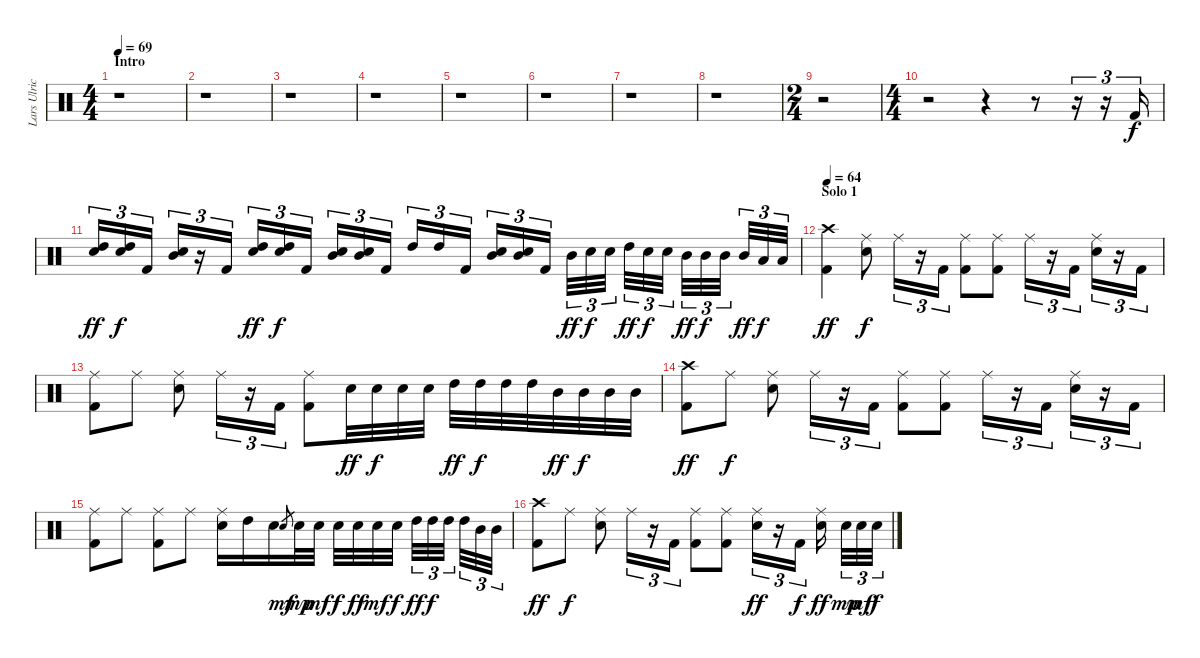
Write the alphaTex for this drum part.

\track ("Lars Ulrich" "Lars Ulric") {instrument percussion}
\staff {score}
\articulation defaults
\ts (4 4)
\section ("" "Intro")
\tempo 69
\clef neutral
\ks c
r.1{dy f} |
r.1 |
r.1 |
r.1 |
r.1 |
r.1 |
r.1 |
r.1 |
\ts (2 4)
r.2 |
\ts (4 4)
r.2 r.4 r.8 r.16{tu (3 2)} r.16{tu (3 2)} "Kick (hit) 2".16{tu (3 2)} |
("High Tom (hit)" "Electric Snare (hit)").16{tu (3 2) dy ff} ("High Tom (hit)" "Electric Snare (hit)").16{tu (3 2) dy f} "Kick (hit) 2".16{tu (3 2)} ("Mid Tom (hit)" "Electric Snare (hit)").16{tu (3 2)} r.16{tu (3 2)} "Kick (hit) 2".16{tu (3 2)} ("High Tom (hit)" "Electric Snare (hit)").16{tu (3 2) dy ff} ("High Tom (hit)" "Electric Snare (hit)").16{tu (3 2) dy f} "Kick (hit) 2".16{tu (3 2)} ("Mid Tom (hit)" "Electric Snare (hit)").16{tu (3 2)} ("Mid Tom (hit)" "Electric Snare (hit)").16{tu (3 2)} "Kick (hit) 2".16{tu (3 2)} "High Tom (hit)".16{tu (3 2)} "High Tom (hit)".16{tu (3 2)} "Kick (hit) 2".16{tu (3 2)} ("Mid Tom (hit)" "Electric Snare (hit)").16{tu (3 2)} ("Mid Tom (hit)" "Electric Snare (hit)").16{tu (3 2)} "Kick (hit) 2".16{tu (3 2)} "Mid Tom (hit)".32{tu (3 2) dy ff} "Electric Snare (hit)".32{tu (3 2) dy f} "Electric Snare (hit)".32{tu (3 2)} "High Tom (hit)".32{tu (3 2) dy ff} "Electric Snare (hit)".32{tu (3 2) dy f} "Electric Snare (hit)".32{tu (3 2)} "Mid Tom (hit)".32{tu (3 2) dy ff} "Mid Tom (hit)".32{tu (3 2) dy f} "Mid Tom (hit)".32{tu (3 2)} "Mid Tom (hit)".32{tu (3 2) dy ff} "Low Tom (hit)".32{tu (3 2) dy f} "Low Tom (hit)".32{tu (3 2)} |
\section ("" "Solo 1")
\tempo 64
("Crash high (hit)" "Kick (hit) 2").4{dy ff} ("Ride (middle)" "Electric Snare (hit)").8{dy f} "Ride (middle)".16{tu (3 2)} r.16{tu (3 2)} "Kick (hit) 2".16{tu (3 2)} ("Ride (middle)" "Kick (hit) 2").8 ("Ride (middle)" "Kick (hit) 2").8 "Ride (middle)".16{tu (3 2)} r.16{tu (3 2)} "Kick (hit) 2".16{tu (3 2)} ("Ride (middle)" "Electric Snare (hit)").16{tu (3 2)} r.16{tu (3 2)} "Kick (hit) 2".16{tu (3 2)} |
("Ride (middle)" "Kick (hit) 2").8 "Ride (middle)".8 ("Ride (middle)" "Electric Snare (hit)").8 "Ride (middle)".16{tu (3 2)} r.16{tu (3 2)} "Kick (hit) 2".16{tu (3 2)} ("Ride (middle)" "Kick (hit) 2").8 "Electric Snare (hit)".32{dy ff} "Electric Snare (hit)".32{dy f} "Electric Snare (hit)".32 "Electric Snare (hit)".32 "High Tom (hit)".32{dy ff} "High Tom (hit)".32{dy f} "High Tom (hit)".32 "High Tom (hit)".32 "Mid Tom (hit)".32{dy ff} "Mid Tom (hit)".32{dy f} "Mid Tom (hit)".32 "Mid Tom (hit)".32 |
("Crash high (hit)" "Kick (hit) 2").8{dy ff} "Ride (middle)".8{dy f} ("Ride (middle)" "Electric Snare (hit)").8 "Ride (middle)".16{tu (3 2)} r.16{tu (3 2)} "Kick (hit) 2".16{tu (3 2)} ("Ride (middle)" "Kick (hit) 2").8 ("Ride (middle)" "Kick (hit) 2").8 "Ride (middle)".16{tu (3 2)} r.16{tu (3 2)} "Kick (hit) 2".16{tu (3 2)} ("Ride (middle)" "Electric Snare (hit)").16{tu (3 2)} r.16{tu (3 2)} "Kick (hit) 2".16{tu (3 2)} |
("Ride (middle)" "Kick (hit) 2").8 "Ride (middle)".8 ("Ride (middle)" "Kick (hit) 2").8 "Ride (middle)".8 ("Ride (middle)" "Electric Snare (hit)").16 "High Tom (hit)".16 "Electric Snare (hit)".16 "Electric Snare (hit)".8{gr dy mf} "Electric Snare (hit)".32{dy mp} "Electric Snare (hit)".32{dy mf} "Electric Snare (hit)".32{dy f} "Electric Snare (hit)".32{dy ff} "Electric Snare (hit)".32{dy mf} "Electric Snare (hit)".32{dy f} "High Tom (hit)".32{tu (3 2) dy ff} "High Tom (hit)".32{tu (3 2) dy f} "High Tom (hit)".32{tu (3 2)} "High Tom (hit)".32{tu (3 2)} "Mid Tom (hit)".32{tu (3 2)} "Mid Tom (hit)".32{tu (3 2)} |
("Crash high (hit)" "Kick (hit) 2").8{dy ff} "Ride (middle)".8{dy f} ("Ride (middle)" "Electric Snare (hit)").8 "Ride (middle)".16{tu (3 2)} r.16{tu (3 2)} "Kick (hit) 2".16{tu (3 2)} ("Ride (middle)" "Kick (hit) 2").8 ("Ride (middle)" "Kick (hit) 2").8 ("Ride (middle)" "Electric Snare (hit)").16{tu (3 2) dy ff} r.16{tu (3 2)} "Kick (hit) 2".16{tu (3 2) dy f} ("Ride (middle)" "Electric Snare (hit)").16{dy ff} "Electric Snare (hit)".32{tu (3 2) dy mp} "Electric Snare (hit)".32{tu (3 2) dy mf} "Electric Snare (hit)".32{tu (3 2) dy f}
